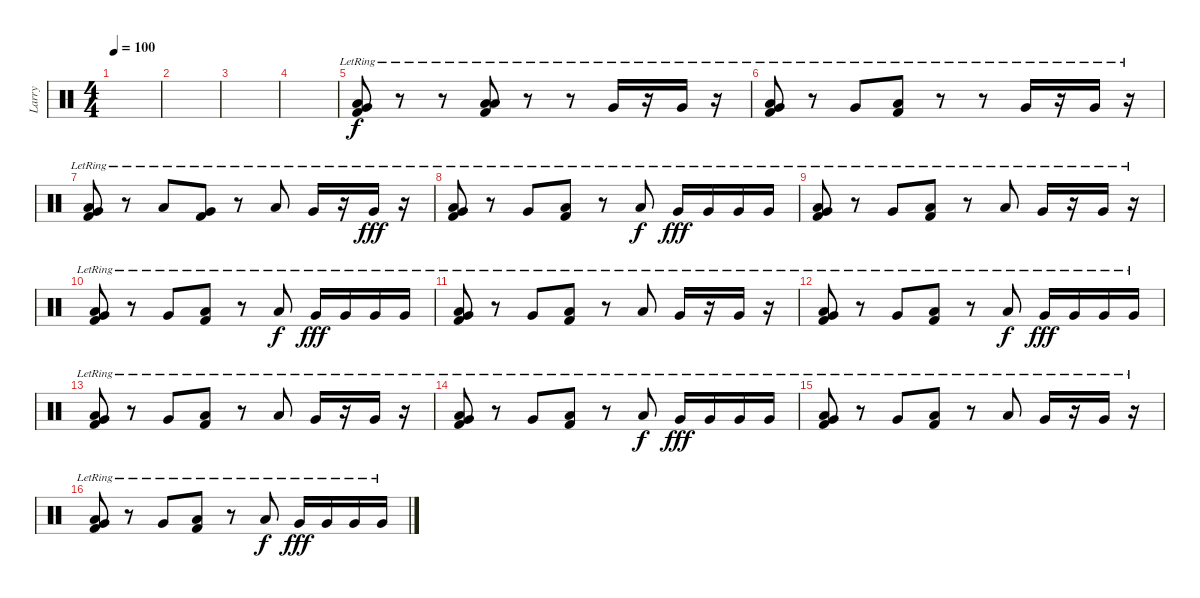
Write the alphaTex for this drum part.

\track ("Larry" "Larry") {instrument percussion}
\staff {score}
\articulation defaults
\ts (4 4)
\tempo 100
\clef neutral
\ks c
|
|
|
|
("Low Floor Tom (hit)"{lr} "Very Low Tom (hit)"{lr} "Kick (hit) 2"{lr}).8{volume 11} r.8 r.8 ("Low Floor Tom (hit)"{lr} "Kick (hit) 2"{lr} "Low Floor Tom (hit)"{lr}).8 r.8 r.8 "Very Low Tom (hit)"{lr}.16 r.16 "Very Low Tom (hit)"{lr}.16 r.16 |
("Low Floor Tom (hit)"{lr} "Very Low Tom (hit)"{lr} "Kick (hit) 2"{lr}).8 r.8 "Very Low Tom (hit)"{lr}.8 ("Low Floor Tom (hit)"{lr} "Kick (hit) 2"{lr}).8 r.8 r.8 "Very Low Tom (hit)"{lr}.16 r.16 "Very Low Tom (hit)"{lr}.16 r.16 |
("Low Floor Tom (hit)"{lr} "Very Low Tom (hit)"{lr} "Kick (hit) 2"{lr}).8 r.8 "Low Floor Tom (hit)"{lr}.8 ("Very Low Tom (hit)"{lr} "Kick (hit) 2"{lr}).8 r.8 "Low Floor Tom (hit)"{lr}.8 "Very Low Tom (hit)"{lr}.16{dy f} r.16 "Very Low Tom (hit)"{lr}.16{dy fff} r.16 |
("Low Floor Tom (hit)"{lr} "Very Low Tom (hit)"{lr} "Kick (hit) 2"{lr}).8 r.8 "Very Low Tom (hit)"{lr}.8 ("Low Floor Tom (hit)"{lr} "Kick (hit) 2"{lr}).8 r.8 "Low Floor Tom (hit)"{lr}.8{dy f} "Very Low Tom (hit)"{lr}.16{dy fff} "Very Low Tom (hit)"{lr}.16 "Very Low Tom (hit)"{lr}.16 "Very Low Tom (hit)"{lr}.16 |
("Low Floor Tom (hit)"{lr} "Very Low Tom (hit)"{lr} "Kick (hit) 2"{lr}).8 r.8 "Very Low Tom (hit)"{lr}.8 ("Low Floor Tom (hit)"{lr} "Kick (hit) 2"{lr}).8 r.8 "Low Floor Tom (hit)"{lr}.8 "Very Low Tom (hit)"{lr}.16 r.16 "Very Low Tom (hit)"{lr}.16 r.16 |
("Low Floor Tom (hit)"{lr} "Very Low Tom (hit)"{lr} "Kick (hit) 2"{lr}).8 r.8 "Very Low Tom (hit)"{lr}.8 ("Low Floor Tom (hit)"{lr} "Kick (hit) 2"{lr}).8 r.8 "Low Floor Tom (hit)"{lr}.8{dy f} "Very Low Tom (hit)"{lr}.16{dy fff} "Very Low Tom (hit)"{lr}.16 "Very Low Tom (hit)"{lr}.16 "Very Low Tom (hit)"{lr}.16 |
("Low Floor Tom (hit)"{lr} "Very Low Tom (hit)"{lr} "Kick (hit) 2"{lr}).8 r.8 "Very Low Tom (hit)"{lr}.8 ("Low Floor Tom (hit)"{lr} "Kick (hit) 2"{lr}).8 r.8 "Low Floor Tom (hit)"{lr}.8 "Very Low Tom (hit)"{lr}.16 r.16 "Very Low Tom (hit)"{lr}.16 r.16 |
("Low Floor Tom (hit)"{lr} "Very Low Tom (hit)"{lr} "Kick (hit) 2"{lr}).8 r.8 "Very Low Tom (hit)"{lr}.8 ("Low Floor Tom (hit)"{lr} "Kick (hit) 2"{lr}).8 r.8 "Low Floor Tom (hit)"{lr}.8{dy f} "Very Low Tom (hit)"{lr}.16{dy fff} "Very Low Tom (hit)"{lr}.16 "Very Low Tom (hit)"{lr}.16 "Very Low Tom (hit)"{lr}.16 |
("Low Floor Tom (hit)"{lr} "Very Low Tom (hit)"{lr} "Kick (hit) 2"{lr}).8 r.8 "Very Low Tom (hit)"{lr}.8 ("Low Floor Tom (hit)"{lr} "Kick (hit) 2"{lr}).8 r.8 "Low Floor Tom (hit)"{lr}.8 "Very Low Tom (hit)"{lr}.16 r.16 "Very Low Tom (hit)"{lr}.16 r.16 |
("Low Floor Tom (hit)"{lr} "Very Low Tom (hit)"{lr} "Kick (hit) 2"{lr}).8 r.8 "Very Low Tom (hit)"{lr}.8 ("Low Floor Tom (hit)"{lr} "Kick (hit) 2"{lr}).8 r.8 "Low Floor Tom (hit)"{lr}.8{dy f} "Very Low Tom (hit)"{lr}.16{dy fff} "Very Low Tom (hit)"{lr}.16 "Very Low Tom (hit)"{lr}.16 "Very Low Tom (hit)"{lr}.16 |
("Low Floor Tom (hit)"{lr} "Very Low Tom (hit)"{lr} "Kick (hit) 2"{lr}).8 r.8 "Very Low Tom (hit)"{lr}.8 ("Low Floor Tom (hit)"{lr} "Kick (hit) 2"{lr}).8 r.8 "Low Floor Tom (hit)"{lr}.8 "Very Low Tom (hit)"{lr}.16 r.16 "Very Low Tom (hit)"{lr}.16 r.16 |
("Low Floor Tom (hit)"{lr} "Very Low Tom (hit)"{lr} "Kick (hit) 2"{lr}).8 r.8 "Very Low Tom (hit)"{lr}.8 ("Low Floor Tom (hit)"{lr} "Kick (hit) 2"{lr}).8 r.8 "Low Floor Tom (hit)"{lr}.8{dy f} "Very Low Tom (hit)"{lr}.16{dy fff} "Very Low Tom (hit)"{lr}.16 "Very Low Tom (hit)"{lr}.16 "Very Low Tom (hit)"{lr}.16
